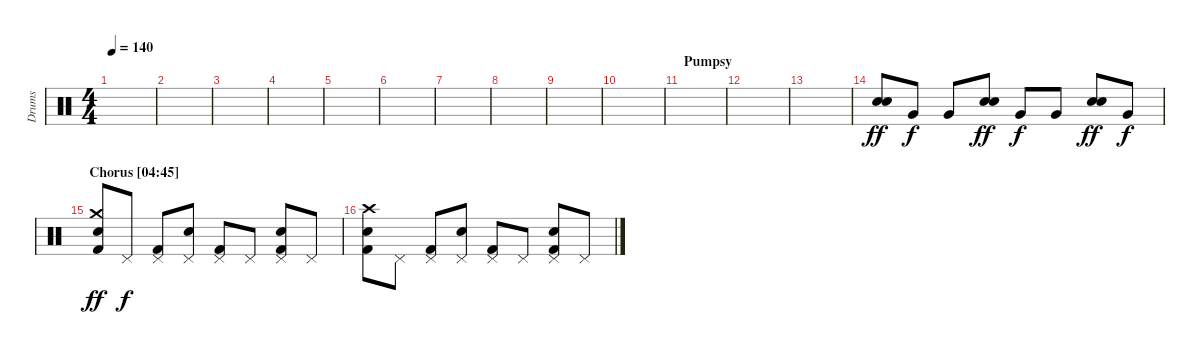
\track ("Drums" "Drums") {instrument percussion}
\staff {score}
\articulation defaults
\ts (4 4)
\tempo 140
\clef neutral
\ks c
|
|
\section ("" "")
|
|
|
|
|
\section ("" "")
|
|
|
\section ("" "Pumpsy")
|
|
|
("Snare (hit) 2" "Electric Snare (hit)").8{dy ff} "Very Low Tom (hit)".8{dy f} "Very Low Tom (hit)".8 ("Snare (hit) 2" "Electric Snare (hit)").8{dy ff} "Very Low Tom (hit)".8{dy f} "Very Low Tom (hit)".8 ("Snare (hit) 2" "Electric Snare (hit)").8{dy ff} "Very Low Tom (hit)".8{dy f} |
\section ("" "Chorus [04:45]")
("Crash medium (hit)" "Electric Snare (hit)" "Kick (hit) 2").8{dy ff} "Pedal Hi-Hat (hit)".8{dy f} ("Pedal Hi-Hat (hit)" "Kick (hit) 2").8 ("Pedal Hi-Hat (hit)" "Electric Snare (hit)").8 ("Pedal Hi-Hat (hit)" "Kick (hit) 2").8 "Pedal Hi-Hat (hit)".8 ("Pedal Hi-Hat (hit)" "Electric Snare (hit)" "Kick (hit) 2").8 "Pedal Hi-Hat (hit)".8 |
("Crash high (hit)" "Electric Snare (hit)" "Kick (hit) 2").8 "Pedal Hi-Hat (hit)".8 ("Pedal Hi-Hat (hit)" "Kick (hit) 2").8 ("Pedal Hi-Hat (hit)" "Electric Snare (hit)").8 ("Pedal Hi-Hat (hit)" "Kick (hit) 2").8 "Pedal Hi-Hat (hit)".8 ("Pedal Hi-Hat (hit)" "Electric Snare (hit)" "Kick (hit) 2").8 "Pedal Hi-Hat (hit)".8
